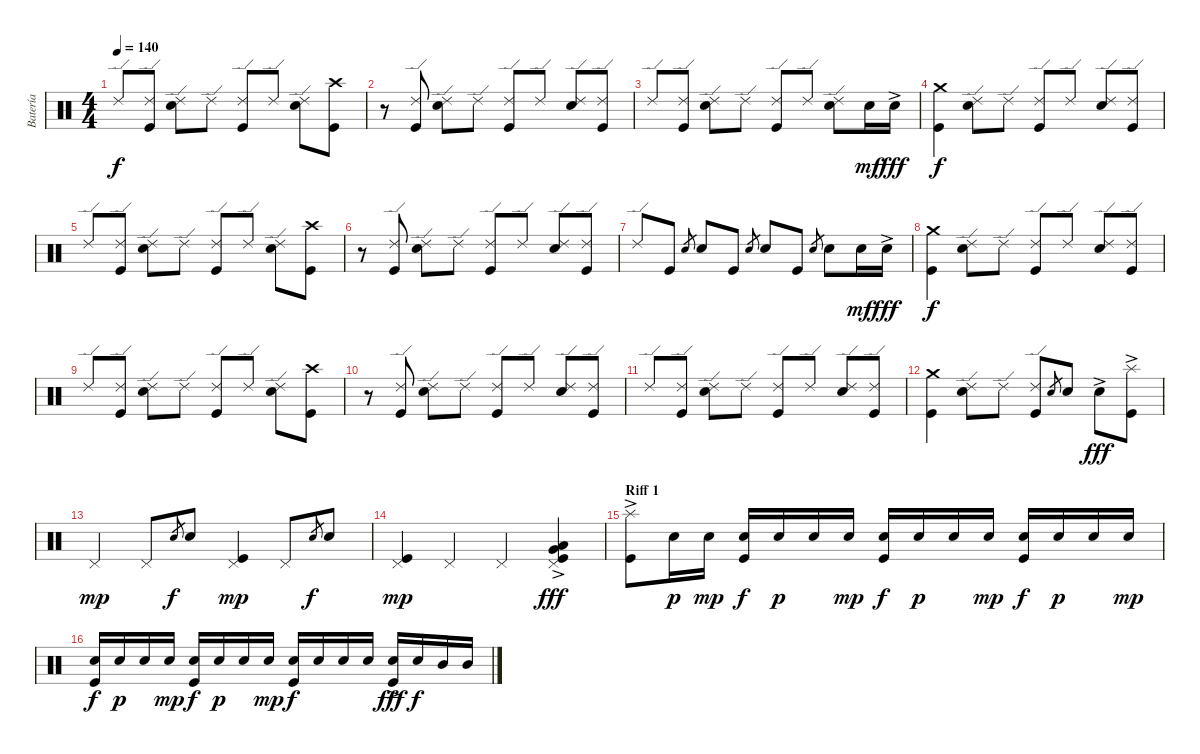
\track ("Batería" "Batería") {instrument percussion}
\staff {score}
\articulation defaults
\ts (4 4)
\tempo 140
\clef neutral
\ks c "Ride (edge) 2".8{dy f}
("Kick (hit)" "Ride (edge) 2").8 ("Electric Snare (hit)" "Ride (edge) 2").8 "Ride (edge) 2".8 ("Kick (hit)" "Ride (edge) 2").8 "Ride (edge) 2".8 ("Electric Snare (hit)" "Ride (edge) 2").8 ("Kick (hit)" "Crash high (hit)").8 |
r.8 ("Kick (hit)" "Ride (edge) 2").8 ("Electric Snare (hit)" "Ride (edge) 2").8 "Ride (edge) 2".8 ("Kick (hit)" "Ride (edge) 2").8 "Ride (edge) 2".8 ("Electric Snare (hit)" "Ride (edge) 2").8 ("Kick (hit)" "Ride (edge) 2").8 |
"Ride (edge) 2".8 ("Kick (hit)" "Ride (edge) 2").8 ("Electric Snare (hit)" "Ride (edge) 2").8 "Ride (edge) 2".8 ("Kick (hit)" "Ride (edge) 2").8 "Ride (edge) 2".8 ("Electric Snare (hit)" "Ride (edge) 2").8 "Electric Snare (hit)".16{dy mf} "Electric Snare (hit)"{ac}.16{dy fff} |
("Kick (hit)" "Crash medium (hit)").4{dy f} ("Electric Snare (hit)" "Ride (edge) 2").8 "Ride (edge) 2".8 ("Kick (hit)" "Ride (edge) 2").8 "Ride (edge) 2".8 ("Electric Snare (hit)" "Ride (edge) 2").8 ("Kick (hit)" "Ride (edge) 2").8 |
"Ride (edge) 2".8 ("Kick (hit)" "Ride (edge) 2").8 ("Electric Snare (hit)" "Ride (edge) 2").8 "Ride (edge) 2".8 ("Kick (hit)" "Ride (edge) 2").8 "Ride (edge) 2".8 ("Electric Snare (hit)" "Ride (edge) 2").8 ("Kick (hit)" "Crash high (hit)").8 |
r.8 ("Kick (hit)" "Ride (edge) 2").8 ("Electric Snare (hit)" "Ride (edge) 2").8 "Ride (edge) 2".8 ("Kick (hit)" "Ride (edge) 2").8 "Ride (edge) 2".8 ("Electric Snare (hit)" "Ride (edge) 2").8 ("Kick (hit)" "Ride (edge) 2").8 |
"Ride (edge) 2".8 "Kick (hit)".8 "Electric Snare (hit)".8{gr} "Electric Snare (hit)".8 "Kick (hit)".8 "Electric Snare (hit)".8{gr} "Electric Snare (hit)".8 "Kick (hit)".8 "Electric Snare (hit)".8{gr} "Electric Snare (hit)".8 "Electric Snare (hit)".16{dy mf} "Electric Snare (hit)"{ac}.16{dy fff} |
("Kick (hit)" "Crash medium (hit)").4{dy f} ("Electric Snare (hit)" "Ride (edge) 2").8 "Ride (edge) 2".8 ("Kick (hit)" "Ride (edge) 2").8 "Ride (edge) 2".8 ("Electric Snare (hit)" "Ride (edge) 2").8 ("Kick (hit)" "Ride (edge) 2").8 |
"Ride (edge) 2".8 ("Kick (hit)" "Ride (edge) 2").8 ("Electric Snare (hit)" "Ride (edge) 2").8 "Ride (edge) 2".8 ("Kick (hit)" "Ride (edge) 2").8 "Ride (edge) 2".8 ("Electric Snare (hit)" "Ride (edge) 2").8 ("Kick (hit)" "Crash high (hit)").8 |
r.8 ("Kick (hit)" "Ride (edge) 2").8 ("Electric Snare (hit)" "Ride (edge) 2").8 "Ride (edge) 2".8 ("Kick (hit)" "Ride (edge) 2").8 "Ride (edge) 2".8 ("Electric Snare (hit)" "Ride (edge) 2").8 ("Kick (hit)" "Ride (edge) 2").8 |
"Ride (edge) 2".8 ("Kick (hit)" "Ride (edge) 2").8 ("Electric Snare (hit)" "Ride (edge) 2").8 "Ride (edge) 2".8 ("Kick (hit)" "Ride (edge) 2").8 "Ride (edge) 2".8 ("Electric Snare (hit)" "Ride (edge) 2").8 ("Kick (hit)" "Ride (edge) 2").8 |
("Kick (hit)" "Crash medium (hit)").4 ("Electric Snare (hit)" "Ride (edge) 2").8 "Ride (edge) 2".8 ("Kick (hit)" "Ride (edge) 2").8 "Electric Snare (hit)".8{gr} "Electric Snare (hit)".8 "Electric Snare (hit)"{ac}.8{dy fff} ("Kick (hit)" "Splash (hit)"{ac}).8 |
"Pedal Hi-Hat (hit)".4{dy mp} "Pedal Hi-Hat (hit)".8 "Electric Snare (hit)".8{gr dy f} "Electric Snare (hit)".8 ("Kick (hit)" "Pedal Hi-Hat (hit)").4{dy mp} "Pedal Hi-Hat (hit)".8 "Electric Snare (hit)".8{gr dy f} "Electric Snare (hit)".8 |
("Kick (hit)" "Pedal Hi-Hat (hit)").4{dy mp} "Pedal Hi-Hat (hit)".4 "Pedal Hi-Hat (hit)".4 ("Kick (hit)" "Very Low Tom (hit)"{ac} "Pedal Hi-Hat (hit)" "Low Floor Tom (hit)").4{dy fff} |
\section ("" "Riff 1")
("Kick (hit)" "Splash (hit)"{ac}).8 "Electric Snare (hit)".16{dy p} "Electric Snare (hit)".16{dy mp} ("Kick (hit)" "Electric Snare (hit)").16{dy f} "Electric Snare (hit)".16{dy p} "Electric Snare (hit)".16 "Electric Snare (hit)".16{dy mp} ("Kick (hit)" "Electric Snare (hit)").16{dy f} "Electric Snare (hit)".16{dy p} "Electric Snare (hit)".16 "Electric Snare (hit)".16{dy mp} ("Kick (hit)" "Electric Snare (hit)").16{dy f} "Electric Snare (hit)".16{dy p} "Electric Snare (hit)".16 "Electric Snare (hit)".16{dy mp} |
("Kick (hit)" "Electric Snare (hit)").16{dy f} "Electric Snare (hit)".16{dy p} "Electric Snare (hit)".16 "Electric Snare (hit)".16{dy mp} ("Kick (hit)" "Electric Snare (hit)").16{dy f} "Electric Snare (hit)".16{dy p} "Electric Snare (hit)".16 "Electric Snare (hit)".16{dy mp} ("Kick (hit)" "Electric Snare (hit)").16{dy f} "Electric Snare (hit)".16 "Electric Snare (hit)".16 "Electric Snare (hit)".16 ("Kick (hit)" "Electric Snare (hit)"{ac}).16{dy fff} "Electric Snare (hit)".16{dy f} "Mid Tom (hit)".16 "Mid Tom (hit)".16
